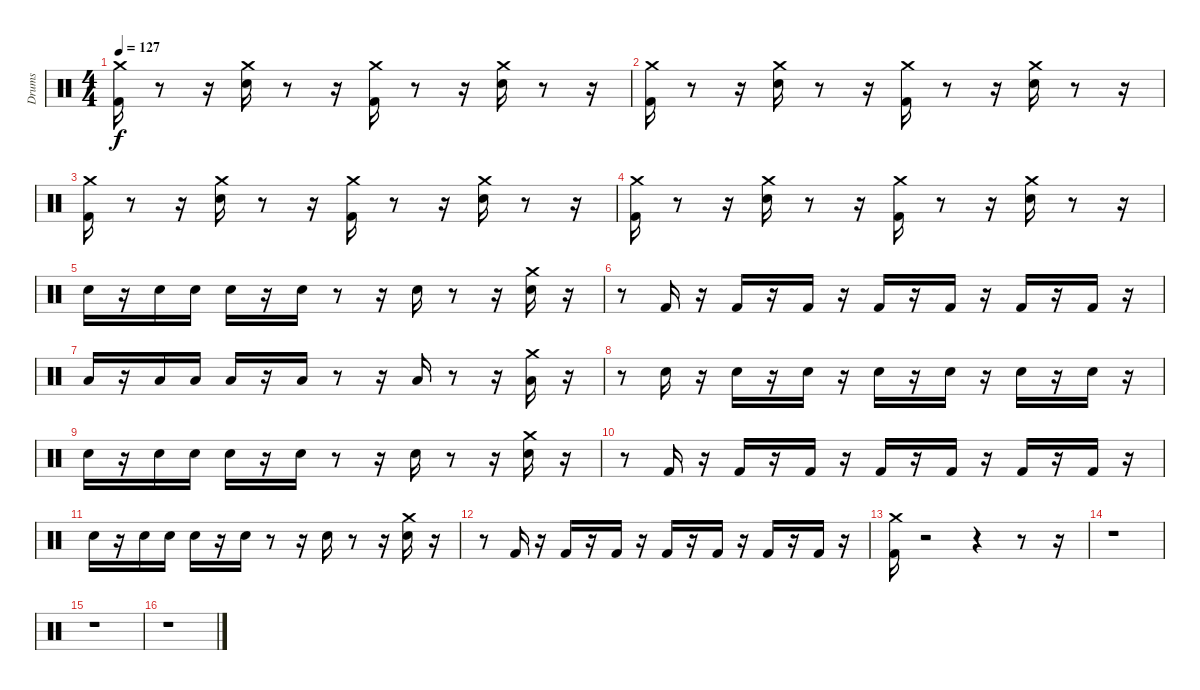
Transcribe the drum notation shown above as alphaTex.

\track ("Drums               " "Drums     ") {instrument percussion}
\staff {score}
\articulation defaults
\ts (4 4)
\tempo 127
\clef neutral
\ks c
("Kick (hit) 2" "Crash medium (hit)").16{dy f} r.8 r.16 ("Electric Snare (hit)" "Crash medium (hit)").16 r.8 r.16 ("Kick (hit) 2" "Crash medium (hit)").16 r.8 r.16 ("Electric Snare (hit)" "Crash medium (hit)").16 r.8 r.16 |
("Kick (hit) 2" "Crash medium (hit)").16 r.8 r.16 ("Electric Snare (hit)" "Crash medium (hit)").16 r.8 r.16 ("Kick (hit) 2" "Crash medium (hit)").16 r.8 r.16 ("Electric Snare (hit)" "Crash medium (hit)").16 r.8 r.16 |
("Kick (hit) 2" "Crash medium (hit)").16 r.8 r.16 ("Electric Snare (hit)" "Crash medium (hit)").16 r.8 r.16 ("Kick (hit) 2" "Crash medium (hit)").16 r.8 r.16 ("Electric Snare (hit)" "Crash medium (hit)").16 r.8 r.16 |
("Kick (hit) 2" "Crash medium (hit)").16 r.8 r.16 ("Electric Snare (hit)" "Crash medium (hit)").16 r.8 r.16 ("Kick (hit) 2" "Crash medium (hit)").16 r.8 r.16 ("Electric Snare (hit)" "Crash medium (hit)").16 r.8 r.16 |
"Electric Snare (hit)".16 r.16 "Electric Snare (hit)".16 "Electric Snare (hit)".16 "Electric Snare (hit)".16 r.16 "Electric Snare (hit)".16 r.8 r.16 "Electric Snare (hit)".16 r.8 r.16 ("Electric Snare (hit)" "Crash medium (hit)").16 r.16 |
r.8 "Kick (hit) 2".16 r.16 "Kick (hit) 2".16 r.16 "Kick (hit) 2".16 r.16 "Kick (hit) 2".16 r.16 "Kick (hit) 2".16 r.16 "Kick (hit) 2".16 r.16 "Kick (hit) 2".16 r.16 |
"Low Floor Tom (hit)".16 r.16 "Low Floor Tom (hit)".16 "Low Floor Tom (hit)".16 "Low Floor Tom (hit)".16 r.16 "Low Floor Tom (hit)".16 r.8 r.16 "Low Floor Tom (hit)".16 r.8 r.16 ("Low Floor Tom (hit)" "Crash medium (hit)").16 r.16 |
r.8 "Electric Snare (hit)".16 r.16 "Electric Snare (hit)".16 r.16 "Electric Snare (hit)".16 r.16 "Electric Snare (hit)".16 r.16 "Electric Snare (hit)".16 r.16 "Electric Snare (hit)".16 r.16 "Electric Snare (hit)".16 r.16 |
"Electric Snare (hit)".16 r.16 "Electric Snare (hit)".16 "Electric Snare (hit)".16 "Electric Snare (hit)".16 r.16 "Electric Snare (hit)".16 r.8 r.16 "Electric Snare (hit)".16 r.8 r.16 ("Electric Snare (hit)" "Crash medium (hit)").16 r.16 |
r.8 "Kick (hit) 2".16 r.16 "Kick (hit) 2".16 r.16 "Kick (hit) 2".16 r.16 "Kick (hit) 2".16 r.16 "Kick (hit) 2".16 r.16 "Kick (hit) 2".16 r.16 "Kick (hit) 2".16 r.16 |
"Electric Snare (hit)".16 r.16 "Electric Snare (hit)".16 "Electric Snare (hit)".16 "Electric Snare (hit)".16 r.16 "Electric Snare (hit)".16 r.8 r.16 "Electric Snare (hit)".16 r.8 r.16 ("Electric Snare (hit)" "Crash medium (hit)").16 r.16 |
r.8 "Kick (hit) 2".16 r.16 "Kick (hit) 2".16 r.16 "Kick (hit) 2".16 r.16 "Kick (hit) 2".16 r.16 "Kick (hit) 2".16 r.16 "Kick (hit) 2".16 r.16 "Kick (hit) 2".16 r.16 |
("Kick (hit) 2" "Crash medium (hit)").16 r.2 r.4 r.8 r.16 |
r.1 |
r.1 |
r.1
